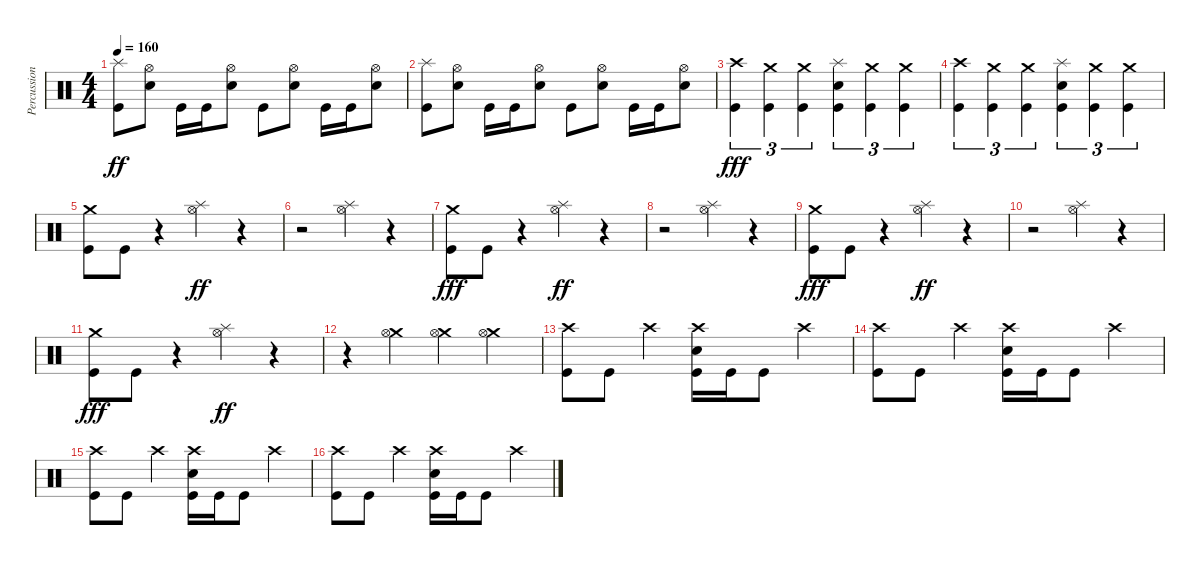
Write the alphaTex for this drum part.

\track ("Percussion" "Percussion") {instrument percussion}
\staff {score}
\articulation defaults
\ts (4 4)
\tempo 160
\clef neutral
\ks c
("Splash (hit)" "Kick (hit)").8{dy ff} ("Hi-Hat (open)" "Electric Snare (hit)").8 "Kick (hit)".16 "Kick (hit)".16 ("Hi-Hat (open)" "Electric Snare (hit)").8 "Kick (hit)".8 ("Hi-Hat (open)" "Electric Snare (hit)").8 "Kick (hit)".16 "Kick (hit)".16 ("Hi-Hat (open)" "Electric Snare (hit)").8 |
("Splash (hit)" "Kick (hit)").8 ("Hi-Hat (open)" "Electric Snare (hit)").8 "Kick (hit)".16 "Kick (hit)".16 ("Hi-Hat (open)" "Electric Snare (hit)").8 "Kick (hit)".8 ("Hi-Hat (open)" "Electric Snare (hit)").8 "Kick (hit)".16 "Kick (hit)".16 ("Hi-Hat (open)" "Electric Snare (hit)").8 |
("Crash high (hit)" "Kick (hit)").4{tu (3 2) dy fff} ("Crash medium (hit)" "Kick (hit)").4{tu (3 2)} ("Crash medium (hit)" "Kick (hit)").4{tu (3 2)} ("Splash (hit)" "Electric Snare (hit)" "Kick (hit)").4{tu (3 2)} ("Crash medium (hit)" "Kick (hit)").4{tu (3 2)} ("Crash medium (hit)" "Kick (hit)").4{tu (3 2)} |
("Crash high (hit)" "Kick (hit)").4{tu (3 2)} ("Crash medium (hit)" "Kick (hit)").4{tu (3 2)} ("Crash medium (hit)" "Kick (hit)").4{tu (3 2)} ("Splash (hit)" "Electric Snare (hit)" "Kick (hit)").4{tu (3 2)} ("Crash medium (hit)" "Kick (hit)").4{tu (3 2)} ("Crash medium (hit)" "Kick (hit)").4{tu (3 2)} |
("Crash medium (hit)" "Kick (hit)").8 "Kick (hit)".8 r.4 ("Splash (hit)" "Hi-Hat (open)").4{dy ff} r.4 |
r.2 ("Splash (hit)" "Hi-Hat (open)").4 r.4 |
("Crash medium (hit)" "Kick (hit)").8{dy fff} "Kick (hit)".8 r.4 ("Splash (hit)" "Hi-Hat (open)").4{dy ff} r.4 |
r.2 ("Splash (hit)" "Hi-Hat (open)").4 r.4 |
("Crash medium (hit)" "Kick (hit)").8{dy fff} "Kick (hit)".8 r.4 ("Splash (hit)" "Hi-Hat (open)").4{dy ff} r.4 |
r.2 ("Splash (hit)" "Hi-Hat (open)").4 r.4 |
("Crash medium (hit)" "Kick (hit)").8{dy fff} "Kick (hit)".8 r.4 ("Splash (hit)" "Hi-Hat (open)").4{dy ff} r.4 |
r.4 ("Crash medium (hit)" "Hi-Hat (open)").4 ("Crash medium (hit)" "Hi-Hat (open)").4 ("Crash medium (hit)" "Hi-Hat (open)").4 |
("Crash high (hit)" "Kick (hit)").8 "Kick (hit)".8 "Crash high (hit)".4 ("Crash high (hit)" "Electric Snare (hit)" "Kick (hit)").16 "Kick (hit)".16 "Kick (hit)".8 "Crash high (hit)".4 |
("Crash high (hit)" "Kick (hit)").8 "Kick (hit)".8 "Crash high (hit)".4 ("Crash high (hit)" "Electric Snare (hit)" "Kick (hit)").16 "Kick (hit)".16 "Kick (hit)".8 "Crash high (hit)".4 |
("Crash high (hit)" "Kick (hit)").8 "Kick (hit)".8 "Crash high (hit)".4 ("Crash high (hit)" "Electric Snare (hit)" "Kick (hit)").16 "Kick (hit)".16 "Kick (hit)".8 "Crash high (hit)".4 |
("Crash high (hit)" "Kick (hit)").8 "Kick (hit)".8 "Crash high (hit)".4 ("Crash high (hit)" "Electric Snare (hit)" "Kick (hit)").16 "Kick (hit)".16 "Kick (hit)".8 "Crash high (hit)".4
